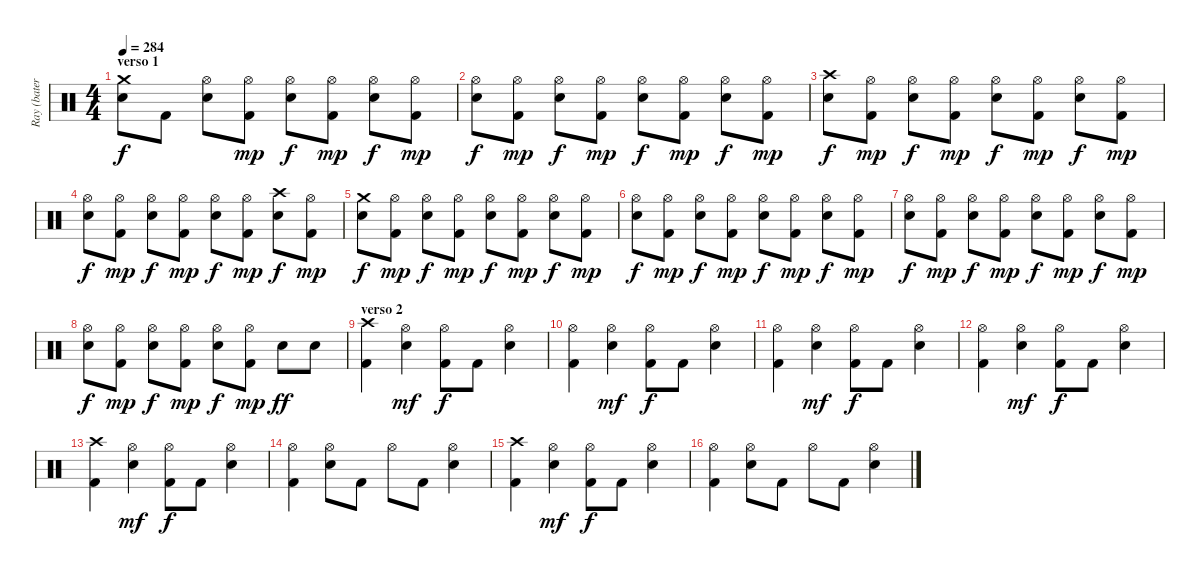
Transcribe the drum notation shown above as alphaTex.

\track ("Ray (batería)" "Ray (bater") {instrument percussion}
\staff {score}
\articulation defaults
\ts (4 4)
\section ("" "verso 1")
\tempo 284
\clef neutral
\ks c
("Crash medium (hit)" "Snare (hit) 2").8{dy f} "Kick (hit) 2".8 ("Hi-Hat (open)" "Snare (hit) 2").8 ("Hi-Hat (open)" "Kick (hit) 2").8{dy mp} ("Hi-Hat (open)" "Snare (hit) 2").8{dy f} ("Hi-Hat (open)" "Kick (hit) 2").8{dy mp} ("Hi-Hat (open)" "Snare (hit) 2").8{dy f} ("Hi-Hat (open)" "Kick (hit) 2").8{dy mp} |
("Hi-Hat (open)" "Snare (hit) 2").8{dy f} ("Hi-Hat (open)" "Kick (hit) 2").8{dy mp} ("Hi-Hat (open)" "Snare (hit) 2").8{dy f} ("Hi-Hat (open)" "Kick (hit) 2").8{dy mp} ("Hi-Hat (open)" "Snare (hit) 2").8{dy f} ("Hi-Hat (open)" "Kick (hit) 2").8{dy mp} ("Hi-Hat (open)" "Snare (hit) 2").8{dy f} ("Hi-Hat (open)" "Kick (hit) 2").8{dy mp} |
("Crash high (hit)" "Snare (hit) 2").8{dy f} ("Hi-Hat (open)" "Kick (hit) 2").8{dy mp} ("Hi-Hat (open)" "Snare (hit) 2").8{dy f} ("Hi-Hat (open)" "Kick (hit) 2").8{dy mp} ("Hi-Hat (open)" "Snare (hit) 2").8{dy f} ("Hi-Hat (open)" "Kick (hit) 2").8{dy mp} ("Hi-Hat (open)" "Snare (hit) 2").8{dy f} ("Hi-Hat (open)" "Kick (hit) 2").8{dy mp} |
("Hi-Hat (open)" "Snare (hit) 2").8{dy f} ("Hi-Hat (open)" "Kick (hit) 2").8{dy mp} ("Hi-Hat (open)" "Snare (hit) 2").8{dy f} ("Hi-Hat (open)" "Kick (hit) 2").8{dy mp} ("Hi-Hat (open)" "Snare (hit) 2").8{dy f} ("Hi-Hat (open)" "Kick (hit) 2").8{dy mp} ("Crash high (hit)" "Snare (hit) 2").8{dy f} ("Hi-Hat (open)" "Kick (hit) 2").8{dy mp} |
("Crash medium (hit)" "Snare (hit) 2").8{dy f} ("Hi-Hat (open)" "Kick (hit) 2").8{dy mp} ("Hi-Hat (open)" "Snare (hit) 2").8{dy f} ("Hi-Hat (open)" "Kick (hit) 2").8{dy mp} ("Hi-Hat (open)" "Snare (hit) 2").8{dy f} ("Hi-Hat (open)" "Kick (hit) 2").8{dy mp} ("Hi-Hat (open)" "Snare (hit) 2").8{dy f} ("Hi-Hat (open)" "Kick (hit) 2").8{dy mp} |
("Hi-Hat (open)" "Snare (hit) 2").8{dy f} ("Hi-Hat (open)" "Kick (hit) 2").8{dy mp} ("Hi-Hat (open)" "Snare (hit) 2").8{dy f} ("Hi-Hat (open)" "Kick (hit) 2").8{dy mp} ("Hi-Hat (open)" "Snare (hit) 2").8{dy f} ("Hi-Hat (open)" "Kick (hit) 2").8{dy mp} ("Hi-Hat (open)" "Snare (hit) 2").8{dy f} ("Hi-Hat (open)" "Kick (hit) 2").8{dy mp} |
("Hi-Hat (open)" "Snare (hit) 2").8{dy f} ("Hi-Hat (open)" "Kick (hit) 2").8{dy mp} ("Hi-Hat (open)" "Snare (hit) 2").8{dy f} ("Hi-Hat (open)" "Kick (hit) 2").8{dy mp} ("Hi-Hat (open)" "Snare (hit) 2").8{dy f} ("Hi-Hat (open)" "Kick (hit) 2").8{dy mp} ("Hi-Hat (open)" "Snare (hit) 2").8{dy f} ("Hi-Hat (open)" "Kick (hit) 2").8{dy mp} |
("Hi-Hat (open)" "Snare (hit) 2").8{dy f} ("Hi-Hat (open)" "Kick (hit) 2").8{dy mp} ("Hi-Hat (open)" "Snare (hit) 2").8{dy f} ("Hi-Hat (open)" "Kick (hit) 2").8{dy mp} ("Hi-Hat (open)" "Snare (hit) 2").8{dy f} ("Hi-Hat (open)" "Kick (hit) 2").8{dy mp} "Snare (hit) 2".8{dy ff} "Snare (hit) 2".8 |
\section ("" "verso 2")
("Crash high (hit)" "Kick (hit) 2").4 ("Hi-Hat (open)" "Snare (hit) 2").4{dy mf} ("Hi-Hat (open)" "Kick (hit) 2").8{dy f} "Kick (hit) 2".8 ("Hi-Hat (open)" "Snare (hit) 2").4 |
("Hi-Hat (open)" "Kick (hit) 2").4 ("Hi-Hat (open)" "Snare (hit) 2").4{dy mf} ("Hi-Hat (open)" "Kick (hit) 2").8{dy f} "Kick (hit) 2".8 ("Hi-Hat (open)" "Snare (hit) 2").4 |
("Hi-Hat (open)" "Kick (hit) 2").4 ("Hi-Hat (open)" "Snare (hit) 2").4{dy mf} ("Hi-Hat (open)" "Kick (hit) 2").8{dy f} "Kick (hit) 2".8 ("Hi-Hat (open)" "Snare (hit) 2").4 |
("Hi-Hat (open)" "Kick (hit) 2").4 ("Hi-Hat (open)" "Snare (hit) 2").4{dy mf} ("Hi-Hat (open)" "Kick (hit) 2").8{dy f} "Kick (hit) 2".8 ("Hi-Hat (open)" "Snare (hit) 2").4 |
("Crash high (hit)" "Kick (hit) 2").4 ("Hi-Hat (open)" "Snare (hit) 2").4{dy mf} ("Hi-Hat (open)" "Kick (hit) 2").8{dy f} "Kick (hit) 2".8 ("Hi-Hat (open)" "Snare (hit) 2").4 |
("Hi-Hat (open)" "Kick (hit) 2").4 ("Hi-Hat (open)" "Snare (hit) 2").8 "Kick (hit) 2".8 "Hi-Hat (open)".8 "Kick (hit) 2".8 ("Hi-Hat (open)" "Snare (hit) 2").4 |
("Crash high (hit)" "Kick (hit) 2").4 ("Hi-Hat (open)" "Snare (hit) 2").4{dy mf} ("Hi-Hat (open)" "Kick (hit) 2").8{dy f} "Kick (hit) 2".8 ("Hi-Hat (open)" "Snare (hit) 2").4 |
("Hi-Hat (open)" "Kick (hit) 2").4 ("Hi-Hat (open)" "Snare (hit) 2").8 "Kick (hit) 2".8 "Hi-Hat (open)".8 "Kick (hit) 2".8 ("Hi-Hat (open)" "Snare (hit) 2").4
